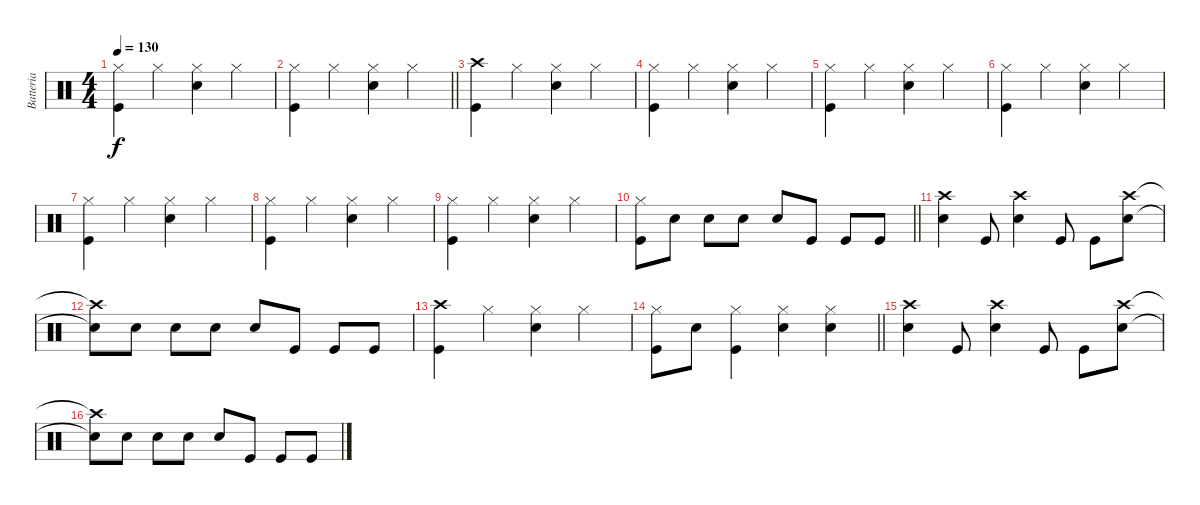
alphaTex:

\track ("Batteria" "Batteria") {instrument percussion}
\staff {score}
\articulation defaults
\ts (4 4)
\tempo 130
\clef neutral
\ks c
("Kick (hit)" "Hi-Hat (closed)").4{dy f} "Hi-Hat (closed)".4 ("Snare (hit) 2" "Hi-Hat (closed)").4 "Hi-Hat (closed)".4 |
\barLineRight lightlight
("Kick (hit)" "Hi-Hat (closed)").4 "Hi-Hat (closed)".4 ("Snare (hit) 2" "Hi-Hat (closed)").4 "Hi-Hat (closed)".4 |
("Kick (hit)" "Crash high (hit)").4 "Hi-Hat (closed)".4 ("Snare (hit) 2" "Hi-Hat (closed)").4 "Hi-Hat (closed)".4 |
("Kick (hit)" "Hi-Hat (closed)").4 "Hi-Hat (closed)".4 ("Snare (hit) 2" "Hi-Hat (closed)").4 "Hi-Hat (closed)".4 |
("Kick (hit)" "Hi-Hat (closed)").4 "Hi-Hat (closed)".4 ("Snare (hit) 2" "Hi-Hat (closed)").4 "Hi-Hat (closed)".4 |
("Kick (hit)" "Hi-Hat (closed)").4 "Hi-Hat (closed)".4 ("Snare (hit) 2" "Hi-Hat (closed)").4 "Hi-Hat (closed)".4 |
("Kick (hit)" "Hi-Hat (closed)").4 "Hi-Hat (closed)".4 ("Snare (hit) 2" "Hi-Hat (closed)").4 "Hi-Hat (closed)".4 |
("Kick (hit)" "Hi-Hat (closed)").4 "Hi-Hat (closed)".4 ("Snare (hit) 2" "Hi-Hat (closed)").4 "Hi-Hat (closed)".4 |
("Kick (hit)" "Hi-Hat (closed)").4 "Hi-Hat (closed)".4 ("Snare (hit) 2" "Hi-Hat (closed)").4 "Hi-Hat (closed)".4 |
\barLineRight lightlight
("Kick (hit)" "Hi-Hat (closed)").8 "Snare (hit) 2".8 "Snare (hit) 2".8 "Snare (hit) 2".8 "Snare (hit) 2".8 "Kick (hit)".8 "Kick (hit)".8 "Kick (hit)".8 |
("Snare (hit) 2" "Crash high (hit)").4 "Kick (hit)".8 ("Snare (hit) 2" "Crash high (hit)").4 "Kick (hit)".8 "Kick (hit)".8 ("Snare (hit) 2" "Crash high (hit)").8 |
("Snare (hit) 2"{t} "Crash high (hit)"{t}).8 "Snare (hit) 2".8 "Snare (hit) 2".8 "Snare (hit) 2".8 "Snare (hit) 2".8 "Kick (hit)".8 "Kick (hit)".8 "Kick (hit)".8 |
("Kick (hit)" "Crash high (hit)").4 "Hi-Hat (closed)".4 ("Snare (hit) 2" "Hi-Hat (closed)").4 "Hi-Hat (closed)".4 |
\barLineRight lightlight
("Kick (hit)" "Hi-Hat (closed)").8 "Snare (hit) 2".8 ("Kick (hit)" "Hi-Hat (closed)").4 ("Snare (hit) 2" "Hi-Hat (closed)").4 ("Snare (hit) 2" "Hi-Hat (closed)").4 |
("Snare (hit) 2" "Crash high (hit)").4 "Kick (hit)".8 ("Snare (hit) 2" "Crash high (hit)").4 "Kick (hit)".8 "Kick (hit)".8 ("Snare (hit) 2" "Crash high (hit)").8 |
("Snare (hit) 2"{t} "Crash high (hit)"{t}).8 "Snare (hit) 2".8 "Snare (hit) 2".8 "Snare (hit) 2".8 "Snare (hit) 2".8 "Kick (hit)".8 "Kick (hit)".8 "Kick (hit)".8
